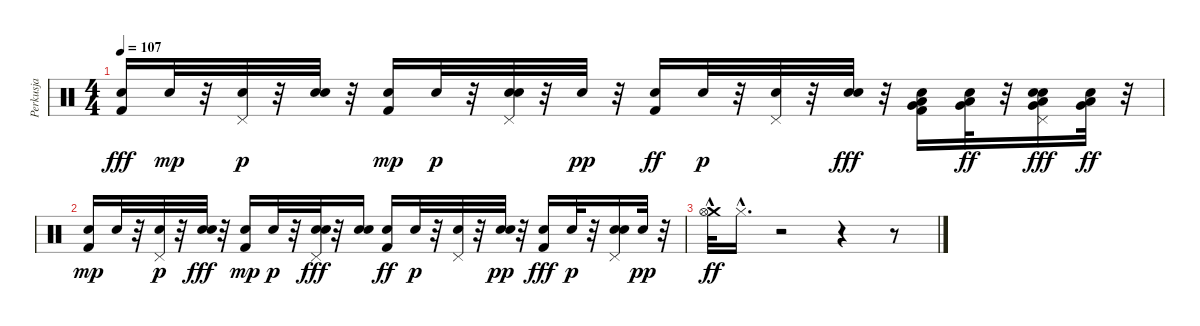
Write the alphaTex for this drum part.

\track ("Perkusja" "Perkusja") {instrument percussion}
\staff {score}
\articulation defaults
\ts (4 4)
\tempo 107
\clef neutral
\ks c
("Snare (hit) 2" "Kick (hit) 2").16{dy fff} "Snare (hit) 2".32{dy mp} r.32 ("Pedal Hi-Hat (hit)" "Snare (hit) 2").32{dy p} r.32 ("Electric Snare (hit)" "Snare (hit) 2").32 r.32 ("Kick (hit) 2" "Snare (hit) 2").16{dy mp} "Snare (hit) 2".32{dy p} r.32 ("Electric Snare (hit)" "Snare (hit) 2" "Pedal Hi-Hat (hit)").32 r.32 "Snare (hit) 2".32{dy pp} r.32 ("Snare (hit) 2" "Kick (hit) 2").16{dy ff} "Snare (hit) 2".32{dy p} r.32 ("Pedal Hi-Hat (hit)" "Snare (hit) 2").32 r.32 ("Snare (hit) 2" "Electric Snare (hit)").32{dy fff} r.32 ("Very Low Tom (hit)" "Snare (hit) 2" "Low Floor Tom (hit)" "Kick (hit) 2").16 ("Snare (hit) 2" "Very Low Tom (hit)" "Low Floor Tom (hit)").32{dy ff} r.32 ("Very Low Tom (hit)" "Snare (hit) 2" "Electric Snare (hit)" "Low Floor Tom (hit)" "Pedal Hi-Hat (hit)").16{dy fff} ("Very Low Tom (hit)" "Snare (hit) 2" "Low Floor Tom (hit)").32{dy ff} r.32 |
("Kick (hit) 2" "Snare (hit) 2").16{dy mp} "Snare (hit) 2".32 r.32 ("Pedal Hi-Hat (hit)" "Snare (hit) 2").32{dy p} r.32 ("Snare (hit) 2" "Electric Snare (hit)").32{dy fff} r.32 ("Kick (hit) 2" "Snare (hit) 2").16{dy mp} "Snare (hit) 2".32{dy p} r.32 ("Snare (hit) 2" "Pedal Hi-Hat (hit)" "Electric Snare (hit)").32{dy fff} r.32 ("Snare (hit) 2" "Electric Snare (hit)").16 ("Snare (hit) 2" "Kick (hit) 2").16{dy ff} "Snare (hit) 2".32{dy p} r.32 ("Snare (hit) 2" "Pedal Hi-Hat (hit)").32 r.32 ("Electric Snare (hit)" "Snare (hit) 2").32{dy pp} r.32 ("Snare (hit) 2" "Kick (hit) 2").16{dy fff} "Snare (hit) 2".32{dy p} r.32 ("Electric Snare (hit)" "Pedal Hi-Hat (hit)" "Snare (hit) 2").16 "Snare (hit) 2".32{dy pp} r.32 |
("Crash medium (hit)" "Hi-Hat (open)"{hac}).32{dy ff} "Hi-Hat (closed)"{hac}.16{d} r.2 r.4 r.8
